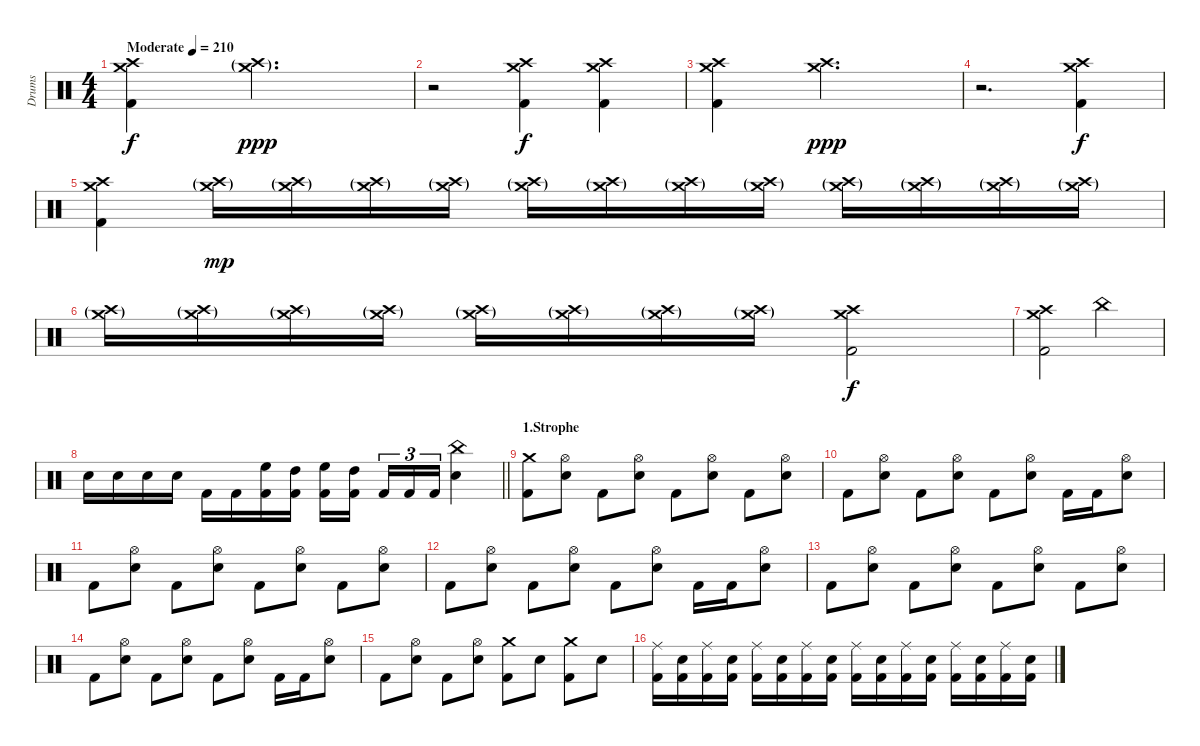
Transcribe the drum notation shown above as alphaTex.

\track ("Drums" "Drums") {instrument percussion}
\staff {score}
\articulation defaults
\ts (4 4)
\tempo (210 "Moderate")
\clef neutral
\ks c
("Crash medium (hit)" "Crash high (hit)" "Kick (hit) 2").4{dy f} ("Crash medium (hit)"{g} "Crash high (hit)"{g}).2{d dy ppp} |
r.2 ("Crash medium (hit)" "Crash high (hit)" "Kick (hit) 2").4{dy f} ("Crash medium (hit)" "Crash high (hit)" "Kick (hit) 2").4 |
("Crash medium (hit)" "Crash high (hit)" "Kick (hit) 2").4 ("Crash medium (hit)" "Crash high (hit)").2{d dy ppp} |
r.2{d} ("Crash medium (hit)" "Crash high (hit)" "Kick (hit) 2").4{dy f} |
("Crash medium (hit)" "Crash high (hit)" "Kick (hit) 2").4 ("Crash medium (hit)"{g} "Crash high (hit)"{g}).16{dy mp} ("Crash medium (hit)"{g} "Crash high (hit)"{g}).16 ("Crash medium (hit)"{g} "Crash high (hit)"{g}).16 ("Crash medium (hit)"{g} "Crash high (hit)"{g}).16 ("Crash medium (hit)"{g} "Crash high (hit)"{g}).16 ("Crash medium (hit)"{g} "Crash high (hit)"{g}).16 ("Crash medium (hit)"{g} "Crash high (hit)"{g}).16 ("Crash medium (hit)"{g} "Crash high (hit)"{g}).16 ("Crash medium (hit)"{g} "Crash high (hit)"{g}).16 ("Crash medium (hit)"{g} "Crash high (hit)"{g}).16 ("Crash medium (hit)"{g} "Crash high (hit)"{g}).16 ("Crash medium (hit)"{g} "Crash high (hit)"{g}).16 |
("Crash medium (hit)"{g} "Crash high (hit)"{g}).16 ("Crash medium (hit)"{g} "Crash high (hit)"{g}).16 ("Crash medium (hit)"{g} "Crash high (hit)"{g}).16 ("Crash medium (hit)"{g} "Crash high (hit)"{g}).16 ("Crash medium (hit)"{g} "Crash high (hit)"{g}).16 ("Crash medium (hit)"{g} "Crash high (hit)"{g}).16 ("Crash medium (hit)"{g} "Crash high (hit)"{g}).16 ("Crash medium (hit)"{g} "Crash high (hit)"{g}).16 ("Crash medium (hit)" "Crash high (hit)" "Kick (hit) 2").2{dy f} |
("Crash medium (hit)" "Crash high (hit)" "Kick (hit) 2").2 "China (hit)".2 |
\barLineRight lightlight "Electric Snare (hit)".16 "Electric Snare (hit)".16 "Electric Snare (hit)".16 "Electric Snare (hit)".16 "Kick (hit) 2".16 "Kick (hit) 2".16
("High Floor Tom (hit)" "Kick (hit) 2").16 ("High Tom (hit)" "Kick (hit) 2").16 ("High Floor Tom (hit)" "Kick (hit) 2").16 ("High Tom (hit)" "Kick (hit) 2").16{beam splitsecondary} "Kick (hit) 2".16{tu (3 2)} "Kick (hit) 2".16{tu (3 2)} "Kick (hit) 2".16{tu (3 2)} ("China (hit)" "Electric Snare (hit)").4 |
\section ("" "1.Strophe")
("Crash medium (hit)" "Kick (hit) 2").8 ("Hi-Hat (open)" "Electric Snare (hit)").8 "Kick (hit) 2".8 ("Hi-Hat (open)" "Electric Snare (hit)").8 "Kick (hit) 2".8 ("Hi-Hat (open)" "Electric Snare (hit)").8 "Kick (hit) 2".8 ("Hi-Hat (open)" "Electric Snare (hit)").8 |
"Kick (hit) 2".8 ("Hi-Hat (open)" "Electric Snare (hit)").8 "Kick (hit) 2".8 ("Hi-Hat (open)" "Electric Snare (hit)").8 "Kick (hit) 2".8 ("Hi-Hat (open)" "Electric Snare (hit)").8 "Kick (hit) 2".16 "Kick (hit) 2".16 ("Hi-Hat (open)" "Electric Snare (hit)").8 |
"Kick (hit) 2".8 ("Hi-Hat (open)" "Electric Snare (hit)").8 "Kick (hit) 2".8 ("Hi-Hat (open)" "Electric Snare (hit)").8 "Kick (hit) 2".8 ("Hi-Hat (open)" "Electric Snare (hit)").8 "Kick (hit) 2".8 ("Hi-Hat (open)" "Electric Snare (hit)").8 |
"Kick (hit) 2".8 ("Hi-Hat (open)" "Electric Snare (hit)").8 "Kick (hit) 2".8 ("Hi-Hat (open)" "Electric Snare (hit)").8 "Kick (hit) 2".8 ("Hi-Hat (open)" "Electric Snare (hit)").8 "Kick (hit) 2".16 "Kick (hit) 2".16 ("Hi-Hat (open)" "Electric Snare (hit)").8 |
"Kick (hit) 2".8 ("Hi-Hat (open)" "Electric Snare (hit)").8 "Kick (hit) 2".8 ("Hi-Hat (open)" "Electric Snare (hit)").8 "Kick (hit) 2".8 ("Hi-Hat (open)" "Electric Snare (hit)").8 "Kick (hit) 2".8 ("Hi-Hat (open)" "Electric Snare (hit)").8 |
"Kick (hit) 2".8 ("Hi-Hat (open)" "Electric Snare (hit)").8 "Kick (hit) 2".8 ("Hi-Hat (open)" "Electric Snare (hit)").8 "Kick (hit) 2".8 ("Hi-Hat (open)" "Electric Snare (hit)").8 "Kick (hit) 2".16 "Kick (hit) 2".16 ("Hi-Hat (open)" "Electric Snare (hit)").8 |
"Kick (hit) 2".8 ("Hi-Hat (open)" "Electric Snare (hit)").8 "Kick (hit) 2".8 ("Hi-Hat (open)" "Electric Snare (hit)").8 ("Crash medium (hit)" "Kick (hit) 2").8 "Electric Snare (hit)".8 ("Crash medium (hit)" "Kick (hit) 2").8 "Electric Snare (hit)".8 |
("Ride (middle)" "Kick (hit) 2").16 ("Electric Snare (hit)" "Kick (hit) 2").16 ("Ride (middle)" "Kick (hit) 2").16 ("Electric Snare (hit)" "Kick (hit) 2").16 ("Ride (middle)" "Kick (hit) 2").16 ("Electric Snare (hit)" "Kick (hit) 2").16 ("Ride (middle)" "Kick (hit) 2").16 ("Electric Snare (hit)" "Kick (hit) 2").16 ("Ride (middle)" "Kick (hit) 2").16 ("Electric Snare (hit)" "Kick (hit) 2").16 ("Ride (middle)" "Kick (hit) 2").16 ("Electric Snare (hit)" "Kick (hit) 2").16 ("Ride (middle)" "Kick (hit) 2").16 ("Electric Snare (hit)" "Kick (hit) 2").16 ("Ride (middle)" "Kick (hit) 2").16 ("Electric Snare (hit)" "Kick (hit) 2").16
